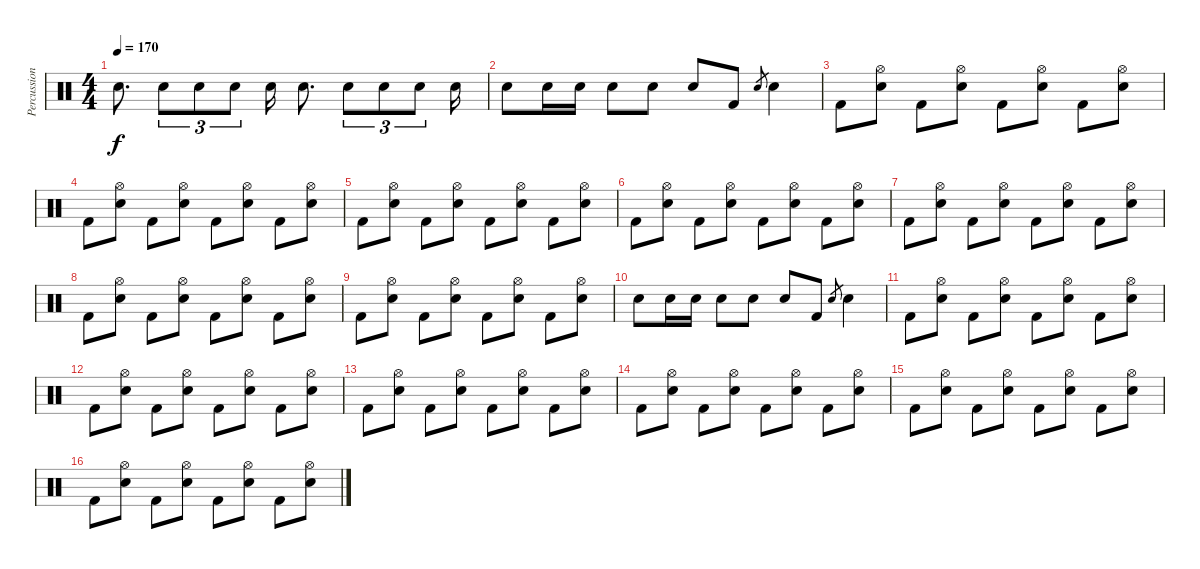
\track ("Percussion" "Percussion") {instrument percussion}
\staff {score}
\articulation defaults
\ts (4 4)
\tempo 170
\clef neutral
\ks c "Electric Snare (hit)".8{d dy f} "Electric Snare (hit)".8{tu (3 2)} "Electric Snare (hit)".8{tu (3 2)} "Electric Snare (hit)".8{tu (3 2)} "Electric Snare (hit)".16 "Electric Snare (hit)".8{d} "Electric Snare (hit)".8{tu (3 2)} "Electric Snare (hit)".8{tu (3 2)} "Electric Snare (hit)".8{tu (3 2)} "Electric Snare (hit)".16
|
"Electric Snare (hit)".8 "Electric Snare (hit)".16 "Electric Snare (hit)".16 "Electric Snare (hit)".8 "Electric Snare (hit)".8 "Electric Snare (hit)".8 "Kick (hit) 2".8 "Electric Snare (hit)".8{gr} "Electric Snare (hit)".4 |
"Kick (hit) 2".8 ("Hi-Hat (open)" "Electric Snare (hit)").8 "Kick (hit) 2".8 ("Hi-Hat (open)" "Electric Snare (hit)").8 "Kick (hit) 2".8 ("Hi-Hat (open)" "Electric Snare (hit)").8 "Kick (hit) 2".8 ("Hi-Hat (open)" "Electric Snare (hit)").8 |
"Kick (hit) 2".8 ("Hi-Hat (open)" "Electric Snare (hit)").8 "Kick (hit) 2".8 ("Hi-Hat (open)" "Electric Snare (hit)").8 "Kick (hit) 2".8 ("Hi-Hat (open)" "Electric Snare (hit)").8 "Kick (hit) 2".8 ("Hi-Hat (open)" "Electric Snare (hit)").8 |
"Kick (hit) 2".8 ("Hi-Hat (open)" "Electric Snare (hit)").8 "Kick (hit) 2".8 ("Hi-Hat (open)" "Electric Snare (hit)").8 "Kick (hit) 2".8 ("Hi-Hat (open)" "Electric Snare (hit)").8 "Kick (hit) 2".8 ("Hi-Hat (open)" "Electric Snare (hit)").8 |
"Kick (hit) 2".8 ("Hi-Hat (open)" "Electric Snare (hit)").8 "Kick (hit) 2".8 ("Hi-Hat (open)" "Electric Snare (hit)").8 "Kick (hit) 2".8 ("Hi-Hat (open)" "Electric Snare (hit)").8 "Kick (hit) 2".8 ("Hi-Hat (open)" "Electric Snare (hit)").8 |
"Kick (hit) 2".8 ("Hi-Hat (open)" "Electric Snare (hit)").8 "Kick (hit) 2".8 ("Hi-Hat (open)" "Electric Snare (hit)").8 "Kick (hit) 2".8 ("Hi-Hat (open)" "Electric Snare (hit)").8 "Kick (hit) 2".8 ("Hi-Hat (open)" "Electric Snare (hit)").8 |
"Kick (hit) 2".8 ("Hi-Hat (open)" "Electric Snare (hit)").8 "Kick (hit) 2".8 ("Hi-Hat (open)" "Electric Snare (hit)").8 "Kick (hit) 2".8 ("Hi-Hat (open)" "Electric Snare (hit)").8 "Kick (hit) 2".8 ("Hi-Hat (open)" "Electric Snare (hit)").8 |
"Kick (hit) 2".8 ("Hi-Hat (open)" "Electric Snare (hit)").8 "Kick (hit) 2".8 ("Hi-Hat (open)" "Electric Snare (hit)").8 "Kick (hit) 2".8 ("Hi-Hat (open)" "Electric Snare (hit)").8 "Kick (hit) 2".8 ("Hi-Hat (open)" "Electric Snare (hit)").8 |
"Electric Snare (hit)".8 "Electric Snare (hit)".16 "Electric Snare (hit)".16 "Electric Snare (hit)".8 "Electric Snare (hit)".8 "Electric Snare (hit)".8 "Kick (hit) 2".8 "Electric Snare (hit)".8{gr} "Electric Snare (hit)".4 |
"Kick (hit) 2".8 ("Hi-Hat (open)" "Electric Snare (hit)").8 "Kick (hit) 2".8 ("Hi-Hat (open)" "Electric Snare (hit)").8 "Kick (hit) 2".8 ("Hi-Hat (open)" "Electric Snare (hit)").8 "Kick (hit) 2".8 ("Hi-Hat (open)" "Electric Snare (hit)").8 |
"Kick (hit) 2".8 ("Hi-Hat (open)" "Electric Snare (hit)").8 "Kick (hit) 2".8 ("Hi-Hat (open)" "Electric Snare (hit)").8 "Kick (hit) 2".8 ("Hi-Hat (open)" "Electric Snare (hit)").8 "Kick (hit) 2".8 ("Hi-Hat (open)" "Electric Snare (hit)").8 |
"Kick (hit) 2".8 ("Hi-Hat (open)" "Electric Snare (hit)").8 "Kick (hit) 2".8 ("Hi-Hat (open)" "Electric Snare (hit)").8 "Kick (hit) 2".8 ("Hi-Hat (open)" "Electric Snare (hit)").8 "Kick (hit) 2".8 ("Hi-Hat (open)" "Electric Snare (hit)").8 |
"Kick (hit) 2".8 ("Hi-Hat (open)" "Electric Snare (hit)").8 "Kick (hit) 2".8 ("Hi-Hat (open)" "Electric Snare (hit)").8 "Kick (hit) 2".8 ("Hi-Hat (open)" "Electric Snare (hit)").8 "Kick (hit) 2".8 ("Hi-Hat (open)" "Electric Snare (hit)").8 |
"Kick (hit) 2".8 ("Hi-Hat (open)" "Electric Snare (hit)").8 "Kick (hit) 2".8 ("Hi-Hat (open)" "Electric Snare (hit)").8 "Kick (hit) 2".8 ("Hi-Hat (open)" "Electric Snare (hit)").8 "Kick (hit) 2".8 ("Hi-Hat (open)" "Electric Snare (hit)").8 |
"Kick (hit) 2".8 ("Hi-Hat (open)" "Electric Snare (hit)").8 "Kick (hit) 2".8 ("Hi-Hat (open)" "Electric Snare (hit)").8 "Kick (hit) 2".8 ("Hi-Hat (open)" "Electric Snare (hit)").8 "Kick (hit) 2".8 ("Hi-Hat (open)" "Electric Snare (hit)").8
